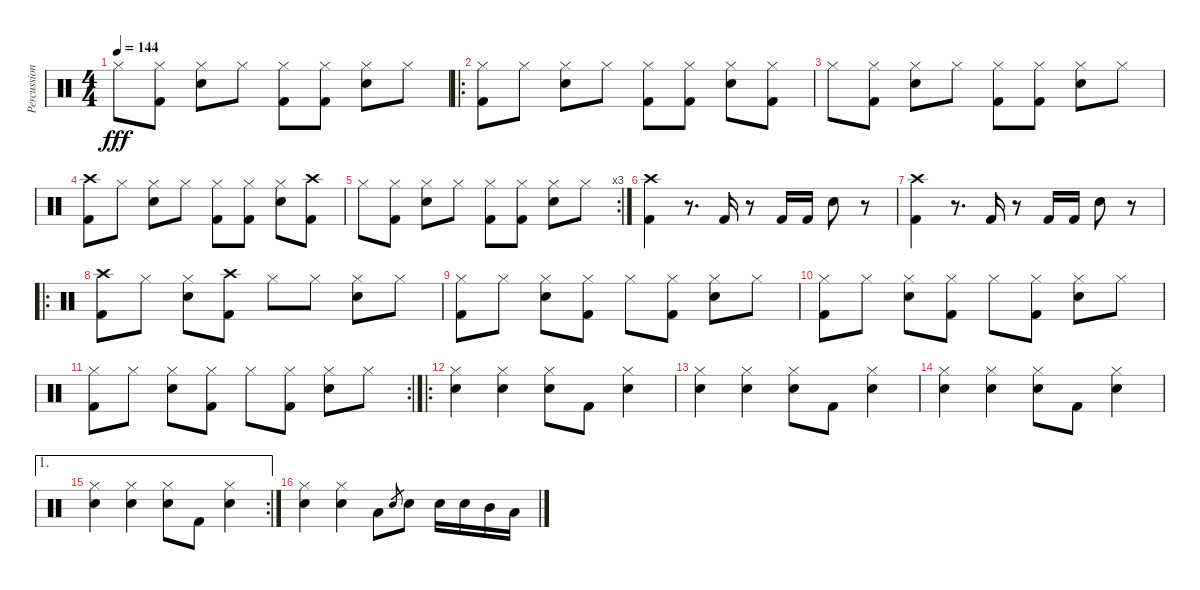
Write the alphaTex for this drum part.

\track ("Percussion" "Percussion") {instrument percussion}
\staff {score}
\articulation defaults
\ts (4 4)
\tempo 144
\clef neutral
\ks c "Hi-Hat (closed)".8{dy fff}
("Kick (hit) 2" "Hi-Hat (closed)").8 ("Snare (hit) 2" "Hi-Hat (closed)").8 "Hi-Hat (closed)".8 ("Kick (hit) 2" "Hi-Hat (closed)").8 ("Kick (hit) 2" "Hi-Hat (closed)").8 ("Snare (hit) 2" "Hi-Hat (closed)").8 "Hi-Hat (closed)".8 |
\ro
("Kick (hit) 2" "Hi-Hat (closed)").8 "Hi-Hat (closed)".8 ("Snare (hit) 2" "Hi-Hat (closed)").8 "Hi-Hat (closed)".8 ("Kick (hit) 2" "Hi-Hat (closed)").8 ("Kick (hit) 2" "Hi-Hat (closed)").8 ("Snare (hit) 2" "Hi-Hat (closed)").8 ("Kick (hit) 2" "Hi-Hat (closed)").8 |
"Hi-Hat (closed)".8 ("Kick (hit) 2" "Hi-Hat (closed)").8 ("Snare (hit) 2" "Hi-Hat (closed)").8 "Hi-Hat (closed)".8 ("Kick (hit) 2" "Hi-Hat (closed)").8 ("Kick (hit) 2" "Hi-Hat (closed)").8 ("Snare (hit) 2" "Hi-Hat (closed)").8 "Hi-Hat (closed)".8 |
("Kick (hit) 2" "Crash high (hit)").8 "Hi-Hat (closed)".8 ("Snare (hit) 2" "Hi-Hat (closed)").8 "Hi-Hat (closed)".8 ("Kick (hit) 2" "Hi-Hat (closed)").8 ("Kick (hit) 2" "Hi-Hat (closed)").8 ("Snare (hit) 2" "Hi-Hat (closed)").8 ("Kick (hit) 2" "Crash high (hit)").8 |
\rc 3 "Hi-Hat (closed)".8
("Kick (hit) 2" "Hi-Hat (closed)").8 ("Snare (hit) 2" "Hi-Hat (closed)").8 "Hi-Hat (closed)".8 ("Kick (hit) 2" "Hi-Hat (closed)").8 ("Kick (hit) 2" "Hi-Hat (closed)").8 ("Snare (hit) 2" "Hi-Hat (closed)").8 "Hi-Hat (closed)".8 |
("Kick (hit) 2" "Crash high (hit)").4 r.8{d} "Kick (hit) 2".16 r.8 "Kick (hit) 2".16 "Kick (hit) 2".16 "Snare (hit) 2".8 r.8 |
("Kick (hit) 2" "Crash high (hit)").4 r.8{d} "Kick (hit) 2".16 r.8 "Kick (hit) 2".16 "Kick (hit) 2".16 "Snare (hit) 2".8 r.8 |
\ro
("Kick (hit) 2" "Crash high (hit)").8 "Hi-Hat (closed)".8 ("Snare (hit) 2" "Hi-Hat (closed)").8 ("Kick (hit) 2" "Crash high (hit)").8 "Hi-Hat (closed)".8 "Hi-Hat (closed)".8 ("Snare (hit) 2" "Hi-Hat (closed)").8 "Hi-Hat (closed)".8 |
("Kick (hit) 2" "Hi-Hat (closed)").8 "Hi-Hat (closed)".8 ("Snare (hit) 2" "Hi-Hat (closed)").8 ("Kick (hit) 2" "Hi-Hat (closed)").8 "Hi-Hat (closed)".8 ("Kick (hit) 2" "Hi-Hat (closed)").8 ("Snare (hit) 2" "Hi-Hat (closed)").8 "Hi-Hat (closed)".8 |
("Kick (hit) 2" "Hi-Hat (closed)").8 "Hi-Hat (closed)".8 ("Snare (hit) 2" "Hi-Hat (closed)").8 ("Kick (hit) 2" "Hi-Hat (closed)").8 "Hi-Hat (closed)".8 ("Kick (hit) 2" "Hi-Hat (closed)").8 ("Snare (hit) 2" "Hi-Hat (closed)").8 "Hi-Hat (closed)".8 |
\rc 2
("Kick (hit) 2" "Hi-Hat (closed)").8 "Hi-Hat (closed)".8 ("Snare (hit) 2" "Hi-Hat (closed)").8 ("Kick (hit) 2" "Hi-Hat (closed)").8 "Hi-Hat (closed)".8 ("Kick (hit) 2" "Hi-Hat (closed)").8 ("Snare (hit) 2" "Hi-Hat (closed)").8 "Hi-Hat (closed)".8 |
\ro
("Snare (hit) 2" "Hi-Hat (closed)").4 ("Snare (hit) 2" "Hi-Hat (closed)").4 ("Snare (hit) 2" "Hi-Hat (closed)").8 "Kick (hit) 2".8 ("Snare (hit) 2" "Hi-Hat (closed)").4 |
("Snare (hit) 2" "Hi-Hat (closed)").4 ("Snare (hit) 2" "Hi-Hat (closed)").4 ("Snare (hit) 2" "Hi-Hat (closed)").8 "Kick (hit) 2".8 ("Snare (hit) 2" "Hi-Hat (closed)").4 |
("Snare (hit) 2" "Hi-Hat (closed)").4 ("Snare (hit) 2" "Hi-Hat (closed)").4 ("Snare (hit) 2" "Hi-Hat (closed)").8 "Kick (hit) 2".8 ("Snare (hit) 2" "Hi-Hat (closed)").4 |
\ae 1
\rc 2
("Snare (hit) 2" "Hi-Hat (closed)").4 ("Snare (hit) 2" "Hi-Hat (closed)").4 ("Snare (hit) 2" "Hi-Hat (closed)").8 "Kick (hit) 2".8 ("Snare (hit) 2" "Hi-Hat (closed)").4 |
("Snare (hit) 2" "Hi-Hat (closed)").4 ("Snare (hit) 2" "Hi-Hat (closed)").4 "Low Tom (hit)".8 "Snare (hit) 2".8{gr} "Snare (hit) 2".8 "Snare (hit) 2".16 "Snare (hit) 2".16 "Mid Tom (hit)".16 "Low Tom (hit)".16
